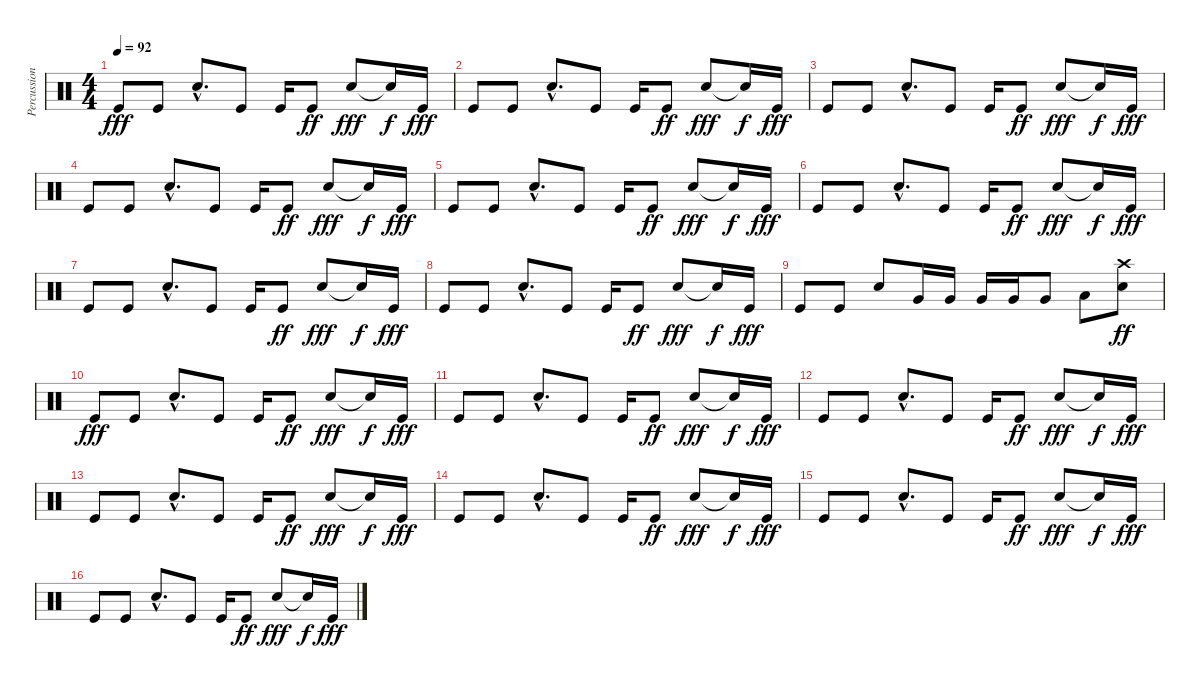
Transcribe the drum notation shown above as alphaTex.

\track ("Percussion" "Percussion") {instrument percussion}
\staff {score}
\articulation defaults
\ts (4 4)
\tempo 92
\clef neutral
\ks c "Kick (hit)".8{dy fff} "Kick (hit)".8 "Electric Snare (hit)"{hac}.8{d} "Kick (hit)".8 "Kick (hit)".16 "Kick (hit)".8{dy ff} "Electric Snare (hit)".8{dy fff} "Snare (hit)"{t}.16{dy f} "Kick (hit)".16{dy fff}
|
"Kick (hit)".8 "Kick (hit)".8 "Electric Snare (hit)"{hac}.8{d} "Kick (hit)".8 "Kick (hit)".16 "Kick (hit)".8{dy ff} "Electric Snare (hit)".8{dy fff} "Snare (hit)"{t}.16{dy f} "Kick (hit)".16{dy fff} |
"Kick (hit)".8 "Kick (hit)".8 "Electric Snare (hit)"{hac}.8{d} "Kick (hit)".8 "Kick (hit)".16 "Kick (hit)".8{dy ff} "Electric Snare (hit)".8{dy fff} "Snare (hit)"{t}.16{dy f} "Kick (hit)".16{dy fff} |
"Kick (hit)".8 "Kick (hit)".8 "Electric Snare (hit)"{hac}.8{d} "Kick (hit)".8 "Kick (hit)".16 "Kick (hit)".8{dy ff} "Electric Snare (hit)".8{dy fff} "Snare (hit)"{t}.16{dy f} "Kick (hit)".16{dy fff} |
"Kick (hit)".8 "Kick (hit)".8 "Electric Snare (hit)"{hac}.8{d} "Kick (hit)".8 "Kick (hit)".16 "Kick (hit)".8{dy ff} "Electric Snare (hit)".8{dy fff} "Snare (hit)"{t}.16{dy f} "Kick (hit)".16{dy fff} |
"Kick (hit)".8 "Kick (hit)".8 "Electric Snare (hit)"{hac}.8{d} "Kick (hit)".8 "Kick (hit)".16 "Kick (hit)".8{dy ff} "Electric Snare (hit)".8{dy fff} "Snare (hit)"{t}.16{dy f} "Kick (hit)".16{dy fff} |
"Kick (hit)".8 "Kick (hit)".8 "Electric Snare (hit)"{hac}.8{d} "Kick (hit)".8 "Kick (hit)".16 "Kick (hit)".8{dy ff} "Electric Snare (hit)".8{dy fff} "Snare (hit)"{t}.16{dy f} "Kick (hit)".16{dy fff} |
"Kick (hit)".8 "Kick (hit)".8 "Electric Snare (hit)"{hac}.8{d} "Kick (hit)".8 "Kick (hit)".16 "Kick (hit)".8{dy ff} "Electric Snare (hit)".8{dy fff} "Snare (hit)"{t}.16{dy f} "Kick (hit)".16{dy fff} |
"Kick (hit)".8 "Kick (hit)".8 "Electric Snare (hit)".8 "Very Low Tom (hit)".16 "Very Low Tom (hit)".16 "Very Low Tom (hit)".16 "Very Low Tom (hit)".16 "Very Low Tom (hit)".8 "Low Floor Tom (hit)".8 ("Electric Snare (hit)" "Crash high (hit)").8{dy ff} |
"Kick (hit)".8{dy fff} "Kick (hit)".8 "Electric Snare (hit)"{hac}.8{d} "Kick (hit)".8 "Kick (hit)".16 "Kick (hit)".8{dy ff} "Electric Snare (hit)".8{dy fff} "Snare (hit)"{t}.16{dy f} "Kick (hit)".16{dy fff} |
"Kick (hit)".8 "Kick (hit)".8 "Electric Snare (hit)"{hac}.8{d} "Kick (hit)".8 "Kick (hit)".16 "Kick (hit)".8{dy ff} "Electric Snare (hit)".8{dy fff} "Snare (hit)"{t}.16{dy f} "Kick (hit)".16{dy fff} |
"Kick (hit)".8 "Kick (hit)".8 "Electric Snare (hit)"{hac}.8{d} "Kick (hit)".8 "Kick (hit)".16 "Kick (hit)".8{dy ff} "Electric Snare (hit)".8{dy fff} "Snare (hit)"{t}.16{dy f} "Kick (hit)".16{dy fff} |
"Kick (hit)".8 "Kick (hit)".8 "Electric Snare (hit)"{hac}.8{d} "Kick (hit)".8 "Kick (hit)".16 "Kick (hit)".8{dy ff} "Electric Snare (hit)".8{dy fff} "Snare (hit)"{t}.16{dy f} "Kick (hit)".16{dy fff} |
"Kick (hit)".8 "Kick (hit)".8 "Electric Snare (hit)"{hac}.8{d} "Kick (hit)".8 "Kick (hit)".16 "Kick (hit)".8{dy ff} "Electric Snare (hit)".8{dy fff} "Snare (hit)"{t}.16{dy f} "Kick (hit)".16{dy fff} |
"Kick (hit)".8 "Kick (hit)".8 "Electric Snare (hit)"{hac}.8{d} "Kick (hit)".8 "Kick (hit)".16 "Kick (hit)".8{dy ff} "Electric Snare (hit)".8{dy fff} "Snare (hit)"{t}.16{dy f} "Kick (hit)".16{dy fff} |
"Kick (hit)".8 "Kick (hit)".8 "Electric Snare (hit)"{hac}.8{d} "Kick (hit)".8 "Kick (hit)".16 "Kick (hit)".8{dy ff} "Electric Snare (hit)".8{dy fff} "Snare (hit)"{t}.16{dy f} "Kick (hit)".16{dy fff}
